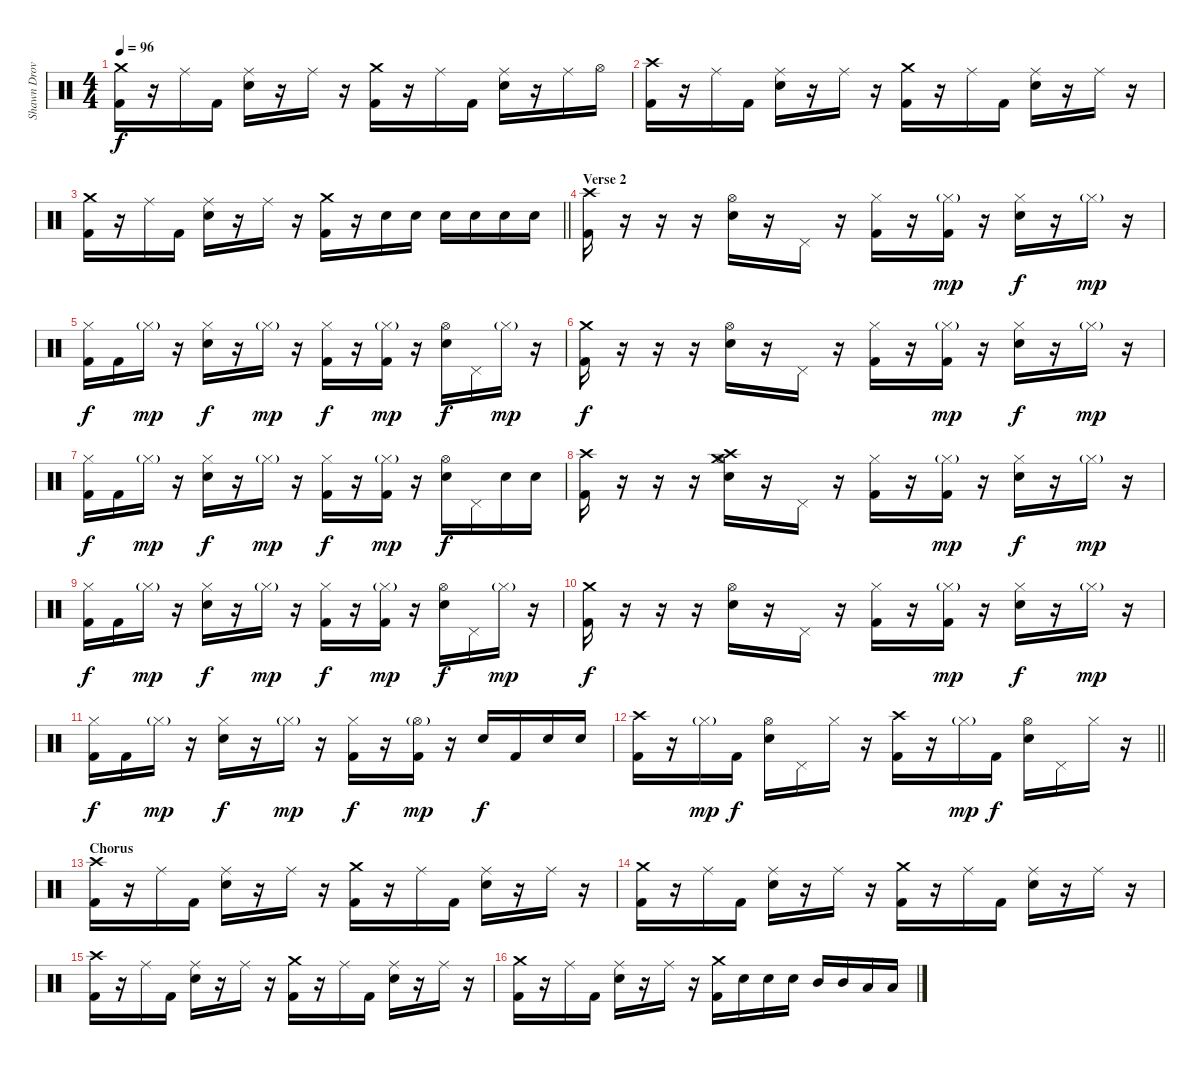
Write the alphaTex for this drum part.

\track ("Shawn Drover" "Shawn Drov") {instrument percussion}
\staff {score}
\articulation defaults
\ts (4 4)
\tempo 96
\clef neutral
\ks c
("Crash medium (hit)" "Kick (hit) 2").16{dy f} r.16 "Ride (middle)".16 "Kick (hit) 2".16 ("Ride (middle)" "Snare (hit) 2").16 r.16 "Ride (middle)".16 r.16 ("Crash medium (hit)" "Kick (hit) 2").16 r.16 "Ride (middle)".16 "Kick (hit) 2".16 ("Ride (middle)" "Snare (hit) 2").16 r.16 "Ride (middle)".16 "Hi-Hat (open)".16 |
("Crash high (hit)" "Kick (hit) 2").16 r.16 "Ride (middle)".16 "Kick (hit) 2".16 ("Ride (middle)" "Snare (hit) 2").16 r.16 "Ride (middle)".16 r.16 ("Crash medium (hit)" "Kick (hit) 2").16 r.16 "Ride (middle)".16 "Kick (hit) 2".16 ("Ride (middle)" "Snare (hit) 2").16 r.16 "Ride (middle)".16 r.16 |
\barLineRight lightlight
("Crash medium (hit)" "Kick (hit) 2").16 r.16 "Ride (middle)".16 "Kick (hit) 2".16 ("Ride (middle)" "Snare (hit) 2").16 r.16 "Ride (middle)".16 r.16 ("Crash medium (hit)" "Kick (hit) 2").16 r.16 "Snare (hit) 2".16 "Snare (hit) 2".16 "Snare (hit) 2".16 "Snare (hit) 2".16 "Snare (hit) 2".16 "Snare (hit) 2".16 |
\section ("" "Verse 2")
("Crash high (hit)" "Kick (hit) 2").16 r.16 r.16 r.16 ("Hi-Hat (open)" "Snare (hit) 2").16 r.16 "Pedal Hi-Hat (hit)".16 r.16 ("Hi-Hat (closed)" "Kick (hit) 2").16 r.16 ("Hi-Hat (closed)"{g} "Kick (hit) 2").16{dy mp} r.16 ("Hi-Hat (closed)" "Snare (hit) 2").16{dy f} r.16 "Hi-Hat (closed)"{g}.16{dy mp} r.16 |
("Hi-Hat (closed)" "Kick (hit) 2").16{dy f} "Kick (hit) 2".16 "Hi-Hat (closed)"{g}.16{dy mp} r.16 ("Hi-Hat (closed)" "Snare (hit) 2").16{dy f} r.16 "Hi-Hat (closed)"{g}.16{dy mp} r.16 ("Hi-Hat (closed)" "Kick (hit) 2").16{dy f} r.16 ("Hi-Hat (closed)"{g} "Kick (hit) 2").16{dy mp} r.16 ("Hi-Hat (open)" "Snare (hit) 2").16{dy f} "Pedal Hi-Hat (hit)".16 "Hi-Hat (closed)"{g}.16{dy mp} r.16 |
("Crash medium (hit)" "Kick (hit) 2").16{dy f} r.16 r.16 r.16 ("Hi-Hat (open)" "Snare (hit) 2").16 r.16 "Pedal Hi-Hat (hit)".16 r.16 ("Hi-Hat (closed)" "Kick (hit) 2").16 r.16 ("Hi-Hat (closed)"{g} "Kick (hit) 2").16{dy mp} r.16 ("Hi-Hat (closed)" "Snare (hit) 2").16{dy f} r.16 "Hi-Hat (closed)"{g}.16{dy mp} r.16 |
("Hi-Hat (closed)" "Kick (hit) 2").16{dy f} "Kick (hit) 2".16 "Hi-Hat (closed)"{g}.16{dy mp} r.16 ("Hi-Hat (closed)" "Snare (hit) 2").16{dy f} r.16 "Hi-Hat (closed)"{g}.16{dy mp} r.16 ("Hi-Hat (closed)" "Kick (hit) 2").16{dy f} r.16 ("Hi-Hat (closed)"{g} "Kick (hit) 2").16{dy mp} r.16 ("Hi-Hat (open)" "Snare (hit) 2").16{dy f} "Pedal Hi-Hat (hit)".16 "Snare (hit) 2".16 "Snare (hit) 2".16 |
("Crash high (hit)" "Kick (hit) 2").16 r.16 r.16 r.16 ("Crash medium (hit)" "Crash high (hit)" "Hi-Hat (open)" "Snare (hit) 2").16 r.16 "Pedal Hi-Hat (hit)".16 r.16 ("Hi-Hat (closed)" "Kick (hit) 2").16 r.16 ("Hi-Hat (closed)"{g} "Kick (hit) 2").16{dy mp} r.16 ("Hi-Hat (closed)" "Snare (hit) 2").16{dy f} r.16 "Hi-Hat (closed)"{g}.16{dy mp} r.16 |
("Hi-Hat (closed)" "Kick (hit) 2").16{dy f} "Kick (hit) 2".16 "Hi-Hat (closed)"{g}.16{dy mp} r.16 ("Hi-Hat (closed)" "Snare (hit) 2").16{dy f} r.16 "Hi-Hat (closed)"{g}.16{dy mp} r.16 ("Hi-Hat (closed)" "Kick (hit) 2").16{dy f} r.16 ("Hi-Hat (closed)"{g} "Kick (hit) 2").16{dy mp} r.16 ("Hi-Hat (open)" "Snare (hit) 2").16{dy f} "Pedal Hi-Hat (hit)".16 "Hi-Hat (closed)"{g}.16{dy mp} r.16 |
("Crash medium (hit)" "Kick (hit) 2").16{dy f} r.16 r.16 r.16 ("Hi-Hat (open)" "Snare (hit) 2").16 r.16 "Pedal Hi-Hat (hit)".16 r.16 ("Hi-Hat (closed)" "Kick (hit) 2").16 r.16 ("Hi-Hat (closed)"{g} "Kick (hit) 2").16{dy mp} r.16 ("Hi-Hat (closed)" "Snare (hit) 2").16{dy f} r.16 "Hi-Hat (closed)"{g}.16{dy mp} r.16 |
("Hi-Hat (closed)" "Kick (hit) 2").16{dy f} "Kick (hit) 2".16 "Hi-Hat (closed)"{g}.16{dy mp} r.16 ("Hi-Hat (closed)" "Snare (hit) 2").16{dy f} r.16 "Hi-Hat (closed)"{g}.16{dy mp} r.16 ("Hi-Hat (closed)" "Kick (hit) 2").16{dy f} r.16 ("Hi-Hat (open)"{g} "Kick (hit) 2").16{dy mp} r.16 "Snare (hit) 2".16{dy f} "Kick (hit) 2".16 "Snare (hit) 2".16 "Snare (hit) 2".16 |
\barLineRight lightlight
("Crash high (hit)" "Kick (hit) 2").16 r.16 "Hi-Hat (closed)"{g}.16{dy mp} "Kick (hit) 2".16{dy f} ("Hi-Hat (open)" "Snare (hit) 2").16 "Pedal Hi-Hat (hit)".16 "Hi-Hat (closed)".16 r.16 ("Crash high (hit)" "Kick (hit) 2").16 r.16 "Hi-Hat (closed)"{g}.16{dy mp} "Kick (hit) 2".16{dy f} ("Hi-Hat (open)" "Snare (hit) 2").16 "Pedal Hi-Hat (hit)".16 "Hi-Hat (closed)".16 r.16 |
\section ("" "Chorus")
("Crash high (hit)" "Kick (hit) 2").16 r.16 "Ride (middle)".16 "Kick (hit) 2".16 ("Ride (middle)" "Snare (hit) 2").16 r.16 "Ride (middle)".16 r.16 ("Crash medium (hit)" "Kick (hit) 2").16 r.16 "Ride (middle)".16 "Kick (hit) 2".16 ("Ride (middle)" "Snare (hit) 2").16 r.16 "Ride (middle)".16 r.16 |
("Crash medium (hit)" "Kick (hit) 2").16 r.16 "Ride (middle)".16 "Kick (hit) 2".16 ("Ride (middle)" "Snare (hit) 2").16 r.16 "Ride (middle)".16 r.16 ("Crash medium (hit)" "Kick (hit) 2").16 r.16 "Ride (middle)".16 "Kick (hit) 2".16 ("Ride (middle)" "Snare (hit) 2").16 r.16 "Ride (middle)".16 r.16 |
("Crash high (hit)" "Kick (hit) 2").16 r.16 "Ride (middle)".16 "Kick (hit) 2".16 ("Ride (middle)" "Snare (hit) 2").16 r.16 "Ride (middle)".16 r.16 ("Crash medium (hit)" "Kick (hit) 2").16 r.16 "Ride (middle)".16 "Kick (hit) 2".16 ("Ride (middle)" "Snare (hit) 2").16 r.16 "Ride (middle)".16 r.16 |
("Crash medium (hit)" "Kick (hit) 2").16 r.16 "Ride (middle)".16 "Kick (hit) 2".16 ("Ride (middle)" "Snare (hit) 2").16 r.16 "Ride (middle)".16 r.16 ("Crash medium (hit)" "Kick (hit) 2").16 "Snare (hit) 2".16 "Snare (hit) 2".16 "Snare (hit) 2".16 "Mid Tom (hit)".16 "Mid Tom (hit)".16 "Low Tom (hit)".16 "Low Tom (hit)".16
